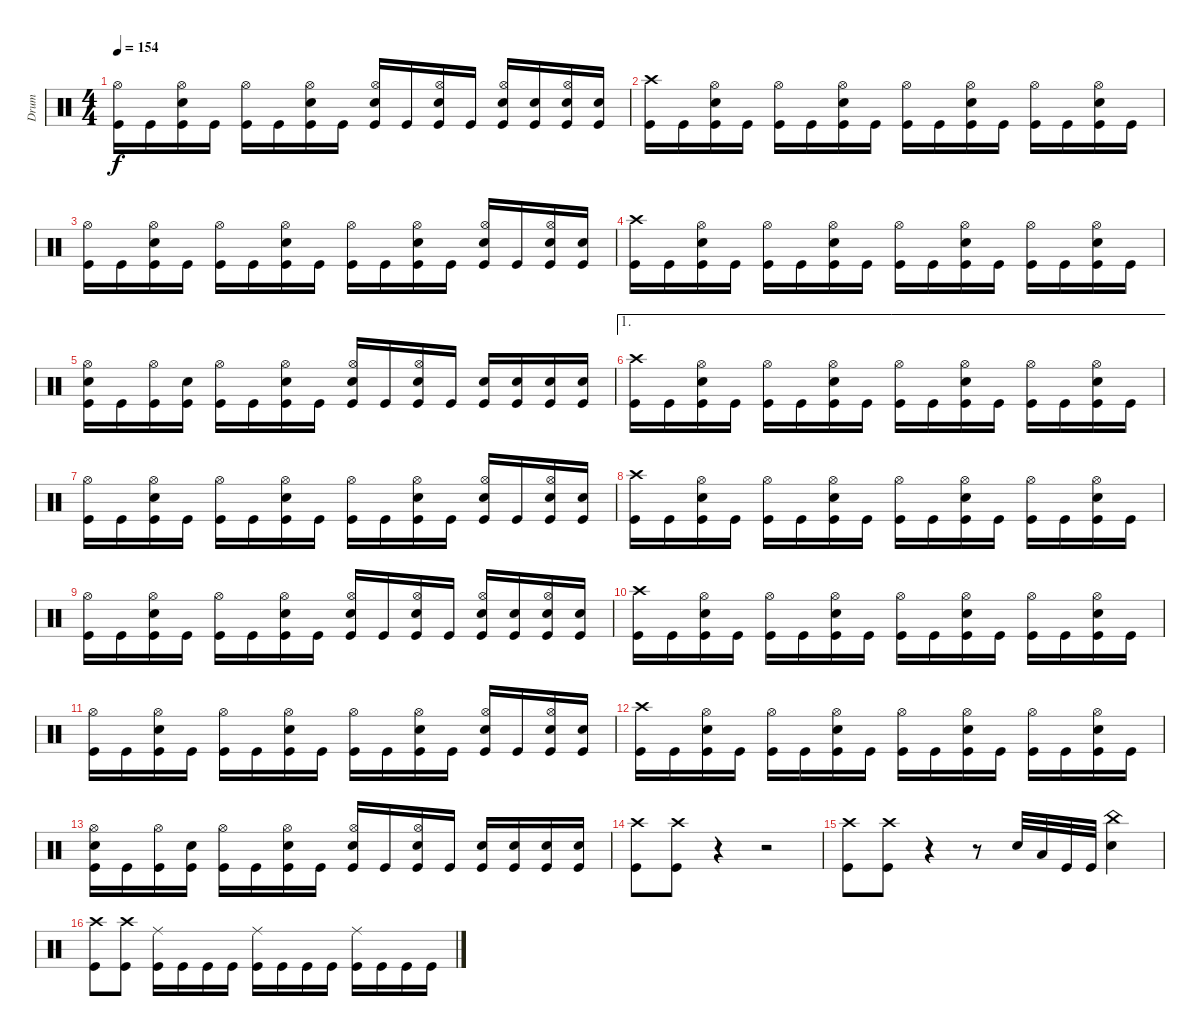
\track ("Drum" "Drum") {instrument percussion}
\staff {score}
\articulation defaults
\ts (4 4)
\tempo 154
\clef neutral
\ks c
("Kick (hit)" "Hi-Hat (open)").16{dy f} "Kick (hit)".16 ("Kick (hit)" "Electric Snare (hit)" "Hi-Hat (open)").16 "Kick (hit)".16 ("Kick (hit)" "Hi-Hat (open)").16 "Kick (hit)".16 ("Kick (hit)" "Electric Snare (hit)" "Hi-Hat (open)").16 "Kick (hit)".16 ("Kick (hit)" "Electric Snare (hit)" "Hi-Hat (open)").16 "Kick (hit)".16 ("Kick (hit)" "Electric Snare (hit)" "Hi-Hat (open)").16 "Kick (hit)".16 ("Kick (hit)" "Electric Snare (hit)" "Hi-Hat (open)").16 ("Kick (hit)" "Electric Snare (hit)").16 ("Kick (hit)" "Electric Snare (hit)" "Hi-Hat (open)").16 ("Kick (hit)" "Electric Snare (hit)").16 |
("Kick (hit)" "Crash high (hit)").16 "Kick (hit)".16 ("Kick (hit)" "Electric Snare (hit)" "Hi-Hat (open)").16 "Kick (hit)".16 ("Kick (hit)" "Hi-Hat (open)").16 "Kick (hit)".16 ("Kick (hit)" "Electric Snare (hit)" "Hi-Hat (open)").16 "Kick (hit)".16 ("Kick (hit)" "Hi-Hat (open)").16 "Kick (hit)".16 ("Kick (hit)" "Electric Snare (hit)" "Hi-Hat (open)").16 "Kick (hit)".16 ("Kick (hit)" "Hi-Hat (open)").16 "Kick (hit)".16 ("Kick (hit)" "Electric Snare (hit)" "Hi-Hat (open)").16 "Kick (hit)".16 |
("Kick (hit)" "Hi-Hat (open)").16 "Kick (hit)".16 ("Kick (hit)" "Electric Snare (hit)" "Hi-Hat (open)").16 "Kick (hit)".16 ("Kick (hit)" "Hi-Hat (open)").16 "Kick (hit)".16 ("Kick (hit)" "Electric Snare (hit)" "Hi-Hat (open)").16 "Kick (hit)".16 ("Kick (hit)" "Hi-Hat (open)").16 "Kick (hit)".16 ("Kick (hit)" "Electric Snare (hit)" "Hi-Hat (open)").16 "Kick (hit)".16 ("Kick (hit)" "Electric Snare (hit)" "Hi-Hat (open)").16 "Kick (hit)".16 ("Kick (hit)" "Electric Snare (hit)" "Hi-Hat (open)").16 ("Kick (hit)" "Electric Snare (hit)").16 |
("Kick (hit)" "Crash high (hit)").16 "Kick (hit)".16 ("Kick (hit)" "Electric Snare (hit)" "Hi-Hat (open)").16 "Kick (hit)".16 ("Kick (hit)" "Hi-Hat (open)").16 "Kick (hit)".16 ("Kick (hit)" "Electric Snare (hit)" "Hi-Hat (open)").16 "Kick (hit)".16 ("Kick (hit)" "Hi-Hat (open)").16 "Kick (hit)".16 ("Kick (hit)" "Electric Snare (hit)" "Hi-Hat (open)").16 "Kick (hit)".16 ("Kick (hit)" "Hi-Hat (open)").16 "Kick (hit)".16 ("Kick (hit)" "Electric Snare (hit)" "Hi-Hat (open)").16 "Kick (hit)".16 |
("Kick (hit)" "Electric Snare (hit)" "Hi-Hat (open)").16 "Kick (hit)".16 ("Kick (hit)" "Hi-Hat (open)").16 ("Kick (hit)" "Electric Snare (hit)").16 ("Kick (hit)" "Hi-Hat (open)").16 "Kick (hit)".16 ("Kick (hit)" "Electric Snare (hit)" "Hi-Hat (open)").16 "Kick (hit)".16 ("Kick (hit)" "Electric Snare (hit)" "Hi-Hat (open)").16 "Kick (hit)".16 ("Kick (hit)" "Electric Snare (hit)" "Hi-Hat (open)").16 "Kick (hit)".16 ("Kick (hit)" "Electric Snare (hit)").16 ("Kick (hit)" "Electric Snare (hit)").16 ("Kick (hit)" "Electric Snare (hit)").16 ("Kick (hit)" "Electric Snare (hit)").16 |
\ae 1
("Kick (hit)" "Crash high (hit)").16 "Kick (hit)".16 ("Kick (hit)" "Electric Snare (hit)" "Hi-Hat (open)").16 "Kick (hit)".16 ("Kick (hit)" "Hi-Hat (open)").16 "Kick (hit)".16 ("Kick (hit)" "Electric Snare (hit)" "Hi-Hat (open)").16 "Kick (hit)".16 ("Kick (hit)" "Hi-Hat (open)").16 "Kick (hit)".16 ("Kick (hit)" "Electric Snare (hit)" "Hi-Hat (open)").16 "Kick (hit)".16 ("Kick (hit)" "Hi-Hat (open)").16 "Kick (hit)".16 ("Kick (hit)" "Electric Snare (hit)" "Hi-Hat (open)").16 "Kick (hit)".16 |
("Kick (hit)" "Hi-Hat (open)").16 "Kick (hit)".16 ("Kick (hit)" "Electric Snare (hit)" "Hi-Hat (open)").16 "Kick (hit)".16 ("Kick (hit)" "Hi-Hat (open)").16 "Kick (hit)".16 ("Kick (hit)" "Electric Snare (hit)" "Hi-Hat (open)").16 "Kick (hit)".16 ("Kick (hit)" "Hi-Hat (open)").16 "Kick (hit)".16 ("Kick (hit)" "Electric Snare (hit)" "Hi-Hat (open)").16 "Kick (hit)".16 ("Kick (hit)" "Electric Snare (hit)" "Hi-Hat (open)").16 "Kick (hit)".16 ("Kick (hit)" "Electric Snare (hit)" "Hi-Hat (open)").16 ("Kick (hit)" "Electric Snare (hit)").16 |
("Kick (hit)" "Crash high (hit)").16 "Kick (hit)".16 ("Kick (hit)" "Electric Snare (hit)" "Hi-Hat (open)").16 "Kick (hit)".16 ("Kick (hit)" "Hi-Hat (open)").16 "Kick (hit)".16 ("Kick (hit)" "Electric Snare (hit)" "Hi-Hat (open)").16 "Kick (hit)".16 ("Kick (hit)" "Hi-Hat (open)").16 "Kick (hit)".16 ("Kick (hit)" "Electric Snare (hit)" "Hi-Hat (open)").16 "Kick (hit)".16 ("Kick (hit)" "Hi-Hat (open)").16 "Kick (hit)".16 ("Kick (hit)" "Electric Snare (hit)" "Hi-Hat (open)").16 "Kick (hit)".16 |
("Kick (hit)" "Hi-Hat (open)").16 "Kick (hit)".16 ("Kick (hit)" "Electric Snare (hit)" "Hi-Hat (open)").16 "Kick (hit)".16 ("Kick (hit)" "Hi-Hat (open)").16 "Kick (hit)".16 ("Kick (hit)" "Electric Snare (hit)" "Hi-Hat (open)").16 "Kick (hit)".16 ("Kick (hit)" "Electric Snare (hit)" "Hi-Hat (open)").16 "Kick (hit)".16 ("Kick (hit)" "Electric Snare (hit)" "Hi-Hat (open)").16 "Kick (hit)".16 ("Kick (hit)" "Electric Snare (hit)" "Hi-Hat (open)").16 ("Kick (hit)" "Electric Snare (hit)").16 ("Kick (hit)" "Electric Snare (hit)" "Hi-Hat (open)").16 ("Kick (hit)" "Electric Snare (hit)").16 |
("Kick (hit)" "Crash high (hit)").16 "Kick (hit)".16 ("Kick (hit)" "Electric Snare (hit)" "Hi-Hat (open)").16 "Kick (hit)".16 ("Kick (hit)" "Hi-Hat (open)").16 "Kick (hit)".16 ("Kick (hit)" "Electric Snare (hit)" "Hi-Hat (open)").16 "Kick (hit)".16 ("Kick (hit)" "Hi-Hat (open)").16 "Kick (hit)".16 ("Kick (hit)" "Electric Snare (hit)" "Hi-Hat (open)").16 "Kick (hit)".16 ("Kick (hit)" "Hi-Hat (open)").16 "Kick (hit)".16 ("Kick (hit)" "Electric Snare (hit)" "Hi-Hat (open)").16 "Kick (hit)".16 |
("Kick (hit)" "Hi-Hat (open)").16 "Kick (hit)".16 ("Kick (hit)" "Electric Snare (hit)" "Hi-Hat (open)").16 "Kick (hit)".16 ("Kick (hit)" "Hi-Hat (open)").16 "Kick (hit)".16 ("Kick (hit)" "Electric Snare (hit)" "Hi-Hat (open)").16 "Kick (hit)".16 ("Kick (hit)" "Hi-Hat (open)").16 "Kick (hit)".16 ("Kick (hit)" "Electric Snare (hit)" "Hi-Hat (open)").16 "Kick (hit)".16 ("Kick (hit)" "Electric Snare (hit)" "Hi-Hat (open)").16 "Kick (hit)".16 ("Kick (hit)" "Electric Snare (hit)" "Hi-Hat (open)").16 ("Kick (hit)" "Electric Snare (hit)").16 |
("Kick (hit)" "Crash high (hit)").16 "Kick (hit)".16 ("Kick (hit)" "Electric Snare (hit)" "Hi-Hat (open)").16 "Kick (hit)".16 ("Kick (hit)" "Hi-Hat (open)").16 "Kick (hit)".16 ("Kick (hit)" "Electric Snare (hit)" "Hi-Hat (open)").16 "Kick (hit)".16 ("Kick (hit)" "Hi-Hat (open)").16 "Kick (hit)".16 ("Kick (hit)" "Electric Snare (hit)" "Hi-Hat (open)").16 "Kick (hit)".16 ("Kick (hit)" "Hi-Hat (open)").16 "Kick (hit)".16 ("Kick (hit)" "Electric Snare (hit)" "Hi-Hat (open)").16 "Kick (hit)".16 |
("Kick (hit)" "Electric Snare (hit)" "Hi-Hat (open)").16 "Kick (hit)".16 ("Kick (hit)" "Hi-Hat (open)").16 ("Kick (hit)" "Electric Snare (hit)").16 ("Kick (hit)" "Hi-Hat (open)").16 "Kick (hit)".16 ("Kick (hit)" "Electric Snare (hit)" "Hi-Hat (open)").16 "Kick (hit)".16 ("Kick (hit)" "Electric Snare (hit)" "Hi-Hat (open)").16 "Kick (hit)".16 ("Kick (hit)" "Electric Snare (hit)" "Hi-Hat (open)").16 "Kick (hit)".16 ("Kick (hit)" "Electric Snare (hit)").16 ("Kick (hit)" "Electric Snare (hit)").16 ("Kick (hit)" "Electric Snare (hit)").16 ("Kick (hit)" "Electric Snare (hit)").16 |
("Kick (hit)" "Crash high (hit)").8 ("Kick (hit)" "Crash high (hit)").8 r.4 r.2 |
("Kick (hit)" "Crash high (hit)").8 ("Kick (hit)" "Crash high (hit)").8 r.4 r.8 "Electric Snare (hit)".32 "Low Floor Tom (hit)".32 "Kick (hit)".32 "Kick (hit)".32 ("Electric Snare (hit)" "China (hit)").4 |
("Kick (hit)" "Crash high (hit)").8 ("Kick (hit)" "Crash high (hit)").8 ("Kick (hit)" "Ride (middle)").16 "Kick (hit)".16 "Kick (hit)".16 "Kick (hit)".16 ("Kick (hit)" "Ride (middle)").16 "Kick (hit)".16 "Kick (hit)".16 "Kick (hit)".16 ("Kick (hit)" "Ride (middle)").16 "Kick (hit)".16 "Kick (hit)".16 "Kick (hit)".16
